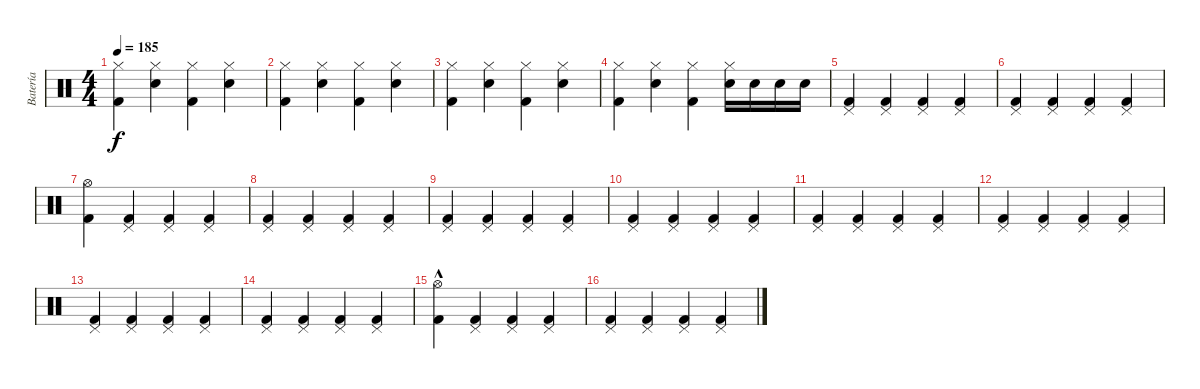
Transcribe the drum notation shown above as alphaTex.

\track ("Batería" "Batería") {instrument percussion}
\staff {score}
\articulation defaults
\ts (4 4)
\tempo 185
\clef neutral
\ks c
("Hi-Hat (closed)" "Kick (hit) 2").4{dy f} ("Hi-Hat (closed)" "Snare (hit) 2").4 ("Hi-Hat (closed)" "Kick (hit) 2").4 ("Hi-Hat (closed)" "Snare (hit) 2").4 |
("Hi-Hat (closed)" "Kick (hit) 2").4 ("Hi-Hat (closed)" "Snare (hit) 2").4 ("Hi-Hat (closed)" "Kick (hit) 2").4 ("Hi-Hat (closed)" "Snare (hit) 2").4 |
("Hi-Hat (closed)" "Kick (hit) 2").4 ("Hi-Hat (closed)" "Snare (hit) 2").4 ("Hi-Hat (closed)" "Kick (hit) 2").4 ("Hi-Hat (closed)" "Snare (hit) 2").4 |
("Hi-Hat (closed)" "Kick (hit) 2").4 ("Hi-Hat (closed)" "Snare (hit) 2").4 ("Hi-Hat (closed)" "Kick (hit) 2").4 ("Snare (hit) 2" "Hi-Hat (closed)").16 "Snare (hit) 2".16 "Snare (hit) 2".16 "Snare (hit) 2".16 |
("Pedal Hi-Hat (hit)" "Kick (hit) 2").4 ("Pedal Hi-Hat (hit)" "Kick (hit) 2").4 ("Pedal Hi-Hat (hit)" "Kick (hit) 2").4 ("Pedal Hi-Hat (hit)" "Kick (hit) 2").4 |
("Pedal Hi-Hat (hit)" "Kick (hit) 2").4 ("Pedal Hi-Hat (hit)" "Kick (hit) 2").4 ("Pedal Hi-Hat (hit)" "Kick (hit) 2").4 ("Pedal Hi-Hat (hit)" "Kick (hit) 2").4 |
("Hi-Hat (open)" "Kick (hit) 2").4 ("Pedal Hi-Hat (hit)" "Kick (hit) 2").4 ("Pedal Hi-Hat (hit)" "Kick (hit) 2").4 ("Pedal Hi-Hat (hit)" "Kick (hit) 2").4 |
("Pedal Hi-Hat (hit)" "Kick (hit) 2").4 ("Pedal Hi-Hat (hit)" "Kick (hit) 2").4 ("Pedal Hi-Hat (hit)" "Kick (hit) 2").4 ("Pedal Hi-Hat (hit)" "Kick (hit) 2").4 |
("Pedal Hi-Hat (hit)" "Kick (hit) 2").4 ("Pedal Hi-Hat (hit)" "Kick (hit) 2").4 ("Pedal Hi-Hat (hit)" "Kick (hit) 2").4 ("Pedal Hi-Hat (hit)" "Kick (hit) 2").4 |
("Pedal Hi-Hat (hit)" "Kick (hit) 2").4 ("Pedal Hi-Hat (hit)" "Kick (hit) 2").4 ("Pedal Hi-Hat (hit)" "Kick (hit) 2").4 ("Pedal Hi-Hat (hit)" "Kick (hit) 2").4 |
("Pedal Hi-Hat (hit)" "Kick (hit) 2").4 ("Pedal Hi-Hat (hit)" "Kick (hit) 2").4 ("Pedal Hi-Hat (hit)" "Kick (hit) 2").4 ("Pedal Hi-Hat (hit)" "Kick (hit) 2").4 |
("Pedal Hi-Hat (hit)" "Kick (hit) 2").4 ("Pedal Hi-Hat (hit)" "Kick (hit) 2").4 ("Pedal Hi-Hat (hit)" "Kick (hit) 2").4 ("Pedal Hi-Hat (hit)" "Kick (hit) 2").4 |
("Pedal Hi-Hat (hit)" "Kick (hit) 2").4 ("Pedal Hi-Hat (hit)" "Kick (hit) 2").4 ("Pedal Hi-Hat (hit)" "Kick (hit) 2").4 ("Pedal Hi-Hat (hit)" "Kick (hit) 2").4 |
("Pedal Hi-Hat (hit)" "Kick (hit) 2").4 ("Pedal Hi-Hat (hit)" "Kick (hit) 2").4 ("Pedal Hi-Hat (hit)" "Kick (hit) 2").4 ("Pedal Hi-Hat (hit)" "Kick (hit) 2").4 |
("Hi-Hat (open)"{hac} "Kick (hit) 2").4 ("Pedal Hi-Hat (hit)" "Kick (hit) 2").4 ("Pedal Hi-Hat (hit)" "Kick (hit) 2").4 ("Pedal Hi-Hat (hit)" "Kick (hit) 2").4 |
("Pedal Hi-Hat (hit)" "Kick (hit) 2").4 ("Pedal Hi-Hat (hit)" "Kick (hit) 2").4 ("Pedal Hi-Hat (hit)" "Kick (hit) 2").4 ("Pedal Hi-Hat (hit)" "Kick (hit) 2").4
